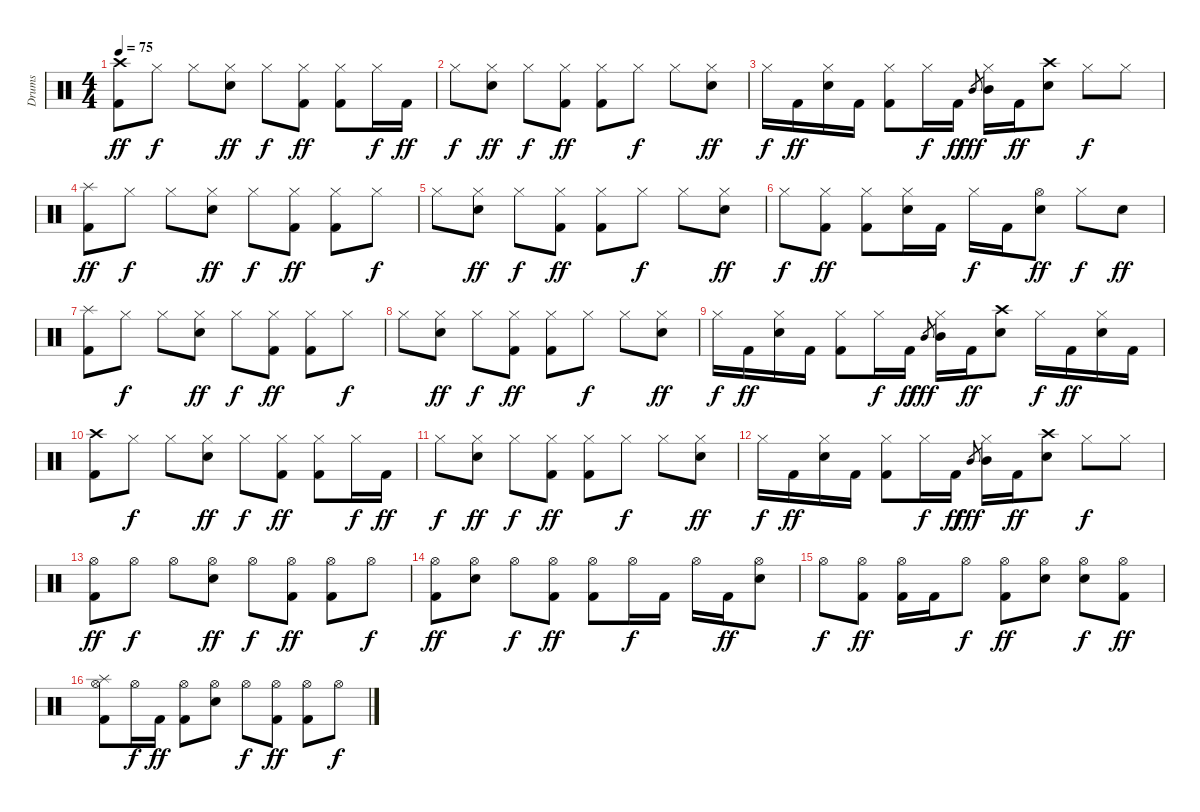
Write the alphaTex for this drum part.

\track ("Drums" "Drums") {instrument percussion}
\staff {score}
\articulation defaults
\ts (4 4)
\tempo 75
\clef neutral
\ks c
("Crash high (hit)" "Kick (hit) 2").8{dy ff} "Hi-Hat (closed)".8{dy f} "Hi-Hat (closed)".8 ("Hi-Hat (closed)" "Electric Snare (hit)").8{dy ff} "Hi-Hat (closed)".8{dy f} ("Hi-Hat (closed)" "Kick (hit) 2").8{dy ff} ("Hi-Hat (closed)" "Kick (hit) 2").8 "Hi-Hat (closed)".16{dy f} "Kick (hit) 2".16{dy ff} |
"Hi-Hat (closed)".8{dy f} ("Hi-Hat (closed)" "Electric Snare (hit)").8{dy ff} "Hi-Hat (closed)".8{dy f} ("Hi-Hat (closed)" "Kick (hit) 2").8{dy ff} ("Hi-Hat (closed)" "Kick (hit) 2").8 "Hi-Hat (closed)".8{dy f} "Hi-Hat (closed)".8 ("Hi-Hat (closed)" "Electric Snare (hit)").8{dy ff} |
"Hi-Hat (closed)".16{dy f} "Kick (hit) 2".16{dy ff} ("Hi-Hat (closed)" "Electric Snare (hit)").16 "Kick (hit) 2".16 ("Hi-Hat (closed)" "Kick (hit) 2").8 "Hi-Hat (closed)".16{dy f} "Kick (hit) 2".16{dy ff} "Mid Tom (hit)".8{gr dy fff} ("Hi-Hat (closed)" "Mid Tom (hit)").16 "Kick (hit) 2".16{dy ff} ("Crash high (hit)" "Electric Snare (hit)").8 "Hi-Hat (closed)".8{dy f} "Hi-Hat (closed)".8 |
("Splash (hit)" "Kick (hit) 2").8{dy ff} "Hi-Hat (closed)".8{dy f} "Hi-Hat (closed)".8 ("Hi-Hat (closed)" "Electric Snare (hit)").8{dy ff} "Hi-Hat (closed)".8{dy f} ("Hi-Hat (closed)" "Kick (hit) 2").8{dy ff} ("Hi-Hat (closed)" "Kick (hit) 2").8 "Hi-Hat (closed)".8{dy f} |
"Hi-Hat (closed)".8 ("Hi-Hat (closed)" "Electric Snare (hit)").8{dy ff} "Hi-Hat (closed)".8{dy f} ("Hi-Hat (closed)" "Kick (hit) 2").8{dy ff} ("Hi-Hat (closed)" "Kick (hit) 2").8 "Hi-Hat (closed)".8{dy f} "Hi-Hat (closed)".8 ("Hi-Hat (closed)" "Electric Snare (hit)").8{dy ff} |
"Hi-Hat (closed)".8{dy f} ("Hi-Hat (closed)" "Kick (hit) 2").8{dy ff} ("Hi-Hat (closed)" "Kick (hit) 2").8 ("Hi-Hat (closed)" "Electric Snare (hit)").16 "Kick (hit) 2".16 "Hi-Hat (closed)".16{dy f} "Kick (hit) 2".16 ("Hi-Hat (open)" "Electric Snare (hit)").8{dy ff} "Hi-Hat (closed)".8{dy f} "Electric Snare (hit)".8{dy ff} |
("Splash (hit)" "Kick (hit) 2").8 "Hi-Hat (closed)".8{dy f} "Hi-Hat (closed)".8 ("Hi-Hat (closed)" "Electric Snare (hit)").8{dy ff} "Hi-Hat (closed)".8{dy f} ("Hi-Hat (closed)" "Kick (hit) 2").8{dy ff} ("Hi-Hat (closed)" "Kick (hit) 2").8 "Hi-Hat (closed)".8{dy f} |
"Hi-Hat (closed)".8 ("Hi-Hat (closed)" "Electric Snare (hit)").8{dy ff} "Hi-Hat (closed)".8{dy f} ("Hi-Hat (closed)" "Kick (hit) 2").8{dy ff} ("Hi-Hat (closed)" "Kick (hit) 2").8 "Hi-Hat (closed)".8{dy f} "Hi-Hat (closed)".8 ("Hi-Hat (closed)" "Electric Snare (hit)").8{dy ff} |
"Hi-Hat (closed)".16{dy f} "Kick (hit) 2".16{dy ff} ("Hi-Hat (closed)" "Electric Snare (hit)").16 "Kick (hit) 2".16 ("Hi-Hat (closed)" "Kick (hit) 2").8 "Hi-Hat (closed)".16{dy f} "Kick (hit) 2".16{dy ff} "Mid Tom (hit)".8{gr dy fff} ("Hi-Hat (closed)" "Mid Tom (hit)").16 "Kick (hit) 2".16{dy ff} ("Crash high (hit)" "Electric Snare (hit)").8 "Hi-Hat (closed)".16{dy f} "Kick (hit) 2".16{dy ff} ("Hi-Hat (closed)" "Electric Snare (hit)").16 "Kick (hit) 2".16 |
("Crash high (hit)" "Kick (hit) 2").8 "Hi-Hat (closed)".8{dy f} "Hi-Hat (closed)".8 ("Hi-Hat (closed)" "Electric Snare (hit)").8{dy ff} "Hi-Hat (closed)".8{dy f} ("Hi-Hat (closed)" "Kick (hit) 2").8{dy ff} ("Hi-Hat (closed)" "Kick (hit) 2").8 "Hi-Hat (closed)".16{dy f} "Kick (hit) 2".16{dy ff} |
"Hi-Hat (closed)".8{dy f} ("Hi-Hat (closed)" "Electric Snare (hit)").8{dy ff} "Hi-Hat (closed)".8{dy f} ("Hi-Hat (closed)" "Kick (hit) 2").8{dy ff} ("Hi-Hat (closed)" "Kick (hit) 2").8 "Hi-Hat (closed)".8{dy f} "Hi-Hat (closed)".8 ("Hi-Hat (closed)" "Electric Snare (hit)").8{dy ff} |
"Hi-Hat (closed)".16{dy f} "Kick (hit) 2".16{dy ff} ("Hi-Hat (closed)" "Electric Snare (hit)").16 "Kick (hit) 2".16 ("Hi-Hat (closed)" "Kick (hit) 2").8 "Hi-Hat (closed)".16{dy f} "Kick (hit) 2".16{dy ff} "Mid Tom (hit)".8{gr dy fff} ("Hi-Hat (closed)" "Mid Tom (hit)").16 "Kick (hit) 2".16{dy ff} ("Crash high (hit)" "Electric Snare (hit)").8 "Hi-Hat (closed)".8{dy f} "Hi-Hat (closed)".8 |
("Hi-Hat (open)" "Kick (hit) 2").8{dy ff} "Hi-Hat (open)".8{dy f} "Hi-Hat (open)".8 ("Hi-Hat (open)" "Electric Snare (hit)").8{dy ff} "Hi-Hat (open)".8{dy f} ("Hi-Hat (open)" "Kick (hit) 2").8{dy ff} ("Hi-Hat (open)" "Kick (hit) 2").8 "Hi-Hat (open)".8{dy f} |
("Hi-Hat (open)" "Kick (hit) 2").8{dy ff} ("Hi-Hat (open)" "Electric Snare (hit)").8 "Hi-Hat (open)".8{dy f} ("Hi-Hat (open)" "Kick (hit) 2").8{dy ff} ("Hi-Hat (open)" "Kick (hit) 2").8 "Hi-Hat (open)".16{dy f} "Kick (hit) 2".16 "Hi-Hat (open)".16 "Kick (hit) 2".16{dy ff} ("Hi-Hat (open)" "Electric Snare (hit)").8 |
"Hi-Hat (open)".8{dy f} ("Hi-Hat (open)" "Kick (hit) 2").8{dy ff} ("Hi-Hat (open)" "Kick (hit) 2").16 "Kick (hit) 2".16 "Hi-Hat (open)".8{dy f} ("Hi-Hat (open)" "Kick (hit) 2").8{dy ff} ("Hi-Hat (open)" "Electric Snare (hit)").8 ("Hi-Hat (open)" "Electric Snare (hit)").8{dy f} ("Hi-Hat (open)" "Kick (hit) 2").8{dy ff} |
("Hi-Hat (open)" "Splash (hit)" "Kick (hit) 2").8 "Hi-Hat (open)".16{dy f} "Kick (hit) 2".16{dy ff} ("Hi-Hat (open)" "Kick (hit) 2").8 ("Hi-Hat (open)" "Electric Snare (hit)").8 "Hi-Hat (open)".8{dy f} ("Hi-Hat (open)" "Kick (hit) 2").8{dy ff} ("Hi-Hat (open)" "Kick (hit) 2").8 "Hi-Hat (open)".8{dy f}
